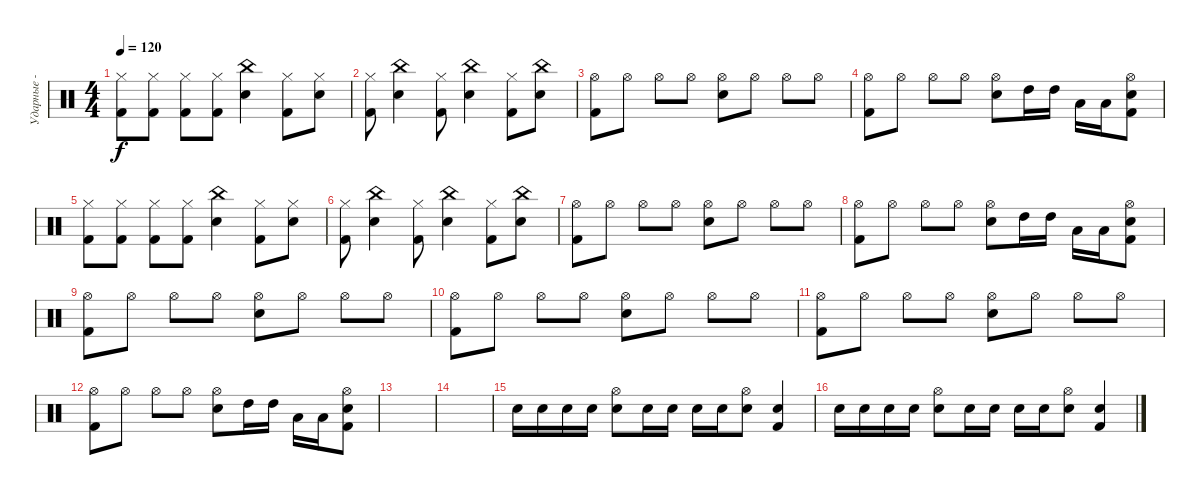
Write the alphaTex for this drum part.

\track ("Ударные - Ваня" "Ударные - ") {instrument percussion}
\staff {score}
\articulation defaults
\ts (4 4)
\tempo 120
\clef neutral
\ks c
("Hi-Hat (closed)" "Kick (hit) 2").8{dy f} ("Hi-Hat (closed)" "Kick (hit) 2").8 ("Hi-Hat (closed)" "Kick (hit) 2").8 ("Hi-Hat (closed)" "Kick (hit) 2").8 ("China (hit)" "Snare (hit) 2").4 ("Hi-Hat (closed)" "Kick (hit) 2").8 ("Hi-Hat (closed)" "Snare (hit) 2").8 |
("Hi-Hat (closed)" "Kick (hit) 2").8 ("China (hit)" "Snare (hit) 2").4 ("Hi-Hat (closed)" "Kick (hit) 2").8 ("China (hit)" "Snare (hit) 2").4 ("Hi-Hat (closed)" "Kick (hit) 2").8 ("China (hit)" "Snare (hit) 2").8 |
("Hi-Hat (open)" "Kick (hit) 2").8 "Hi-Hat (open)".8 "Hi-Hat (open)".8 "Hi-Hat (open)".8 ("Snare (hit) 2" "Hi-Hat (open)").8 "Hi-Hat (open)".8 "Hi-Hat (open)".8 "Hi-Hat (open)".8 |
("Hi-Hat (open)" "Kick (hit) 2").8 "Hi-Hat (open)".8 "Hi-Hat (open)".8 "Hi-Hat (open)".8 ("Snare (hit) 2" "Hi-Hat (open)").8 "High Tom (hit)".16 "High Tom (hit)".16 "Low Tom (hit)".16 "Low Tom (hit)".16 ("Snare (hit) 2" "Hi-Hat (open)" "Kick (hit) 2").8 |
("Hi-Hat (closed)" "Kick (hit) 2").8 ("Hi-Hat (closed)" "Kick (hit) 2").8 ("Hi-Hat (closed)" "Kick (hit) 2").8 ("Hi-Hat (closed)" "Kick (hit) 2").8 ("China (hit)" "Snare (hit) 2").4 ("Hi-Hat (closed)" "Kick (hit) 2").8 ("Hi-Hat (closed)" "Snare (hit) 2").8 |
("Hi-Hat (closed)" "Kick (hit) 2").8 ("China (hit)" "Snare (hit) 2").4 ("Hi-Hat (closed)" "Kick (hit) 2").8 ("China (hit)" "Snare (hit) 2").4 ("Hi-Hat (closed)" "Kick (hit) 2").8 ("China (hit)" "Snare (hit) 2").8 |
("Hi-Hat (open)" "Kick (hit) 2").8 "Hi-Hat (open)".8 "Hi-Hat (open)".8 "Hi-Hat (open)".8 ("Snare (hit) 2" "Hi-Hat (open)").8 "Hi-Hat (open)".8 "Hi-Hat (open)".8 "Hi-Hat (open)".8 |
("Hi-Hat (open)" "Kick (hit) 2").8 "Hi-Hat (open)".8 "Hi-Hat (open)".8 "Hi-Hat (open)".8 ("Snare (hit) 2" "Hi-Hat (open)").8 "High Tom (hit)".16 "High Tom (hit)".16 "Low Tom (hit)".16 "Low Tom (hit)".16 ("Snare (hit) 2" "Hi-Hat (open)" "Kick (hit) 2").8 |
("Hi-Hat (open)" "Kick (hit) 2").8 "Hi-Hat (open)".8 "Hi-Hat (open)".8 "Hi-Hat (open)".8 ("Snare (hit) 2" "Hi-Hat (open)").8 "Hi-Hat (open)".8 "Hi-Hat (open)".8 "Hi-Hat (open)".8 |
("Hi-Hat (open)" "Kick (hit) 2").8 "Hi-Hat (open)".8 "Hi-Hat (open)".8 "Hi-Hat (open)".8 ("Snare (hit) 2" "Hi-Hat (open)").8 "Hi-Hat (open)".8 "Hi-Hat (open)".8 "Hi-Hat (open)".8 |
("Hi-Hat (open)" "Kick (hit) 2").8 "Hi-Hat (open)".8 "Hi-Hat (open)".8 "Hi-Hat (open)".8 ("Snare (hit) 2" "Hi-Hat (open)").8 "Hi-Hat (open)".8 "Hi-Hat (open)".8 "Hi-Hat (open)".8 |
("Hi-Hat (open)" "Kick (hit) 2").8 "Hi-Hat (open)".8 "Hi-Hat (open)".8 "Hi-Hat (open)".8 ("Snare (hit) 2" "Hi-Hat (open)").8 "High Tom (hit)".16 "High Tom (hit)".16 "Low Tom (hit)".16 "Low Tom (hit)".16 ("Snare (hit) 2" "Hi-Hat (open)" "Kick (hit) 2").8 |
|
|
"Snare (hit) 2".16 "Snare (hit) 2".16 "Snare (hit) 2".16 "Snare (hit) 2".16 ("Hi-Hat (open)" "Snare (hit) 2").8 "Snare (hit) 2".16 "Snare (hit) 2".16 "Snare (hit) 2".16 "Snare (hit) 2".16 ("Hi-Hat (open)" "Snare (hit) 2").8 ("Snare (hit) 2" "Kick (hit) 2").4 |
"Snare (hit) 2".16 "Snare (hit) 2".16 "Snare (hit) 2".16 "Snare (hit) 2".16 ("Hi-Hat (open)" "Snare (hit) 2").8 "Snare (hit) 2".16 "Snare (hit) 2".16 "Snare (hit) 2".16 "Snare (hit) 2".16 ("Hi-Hat (open)" "Snare (hit) 2").8 ("Snare (hit) 2" "Kick (hit) 2").4
